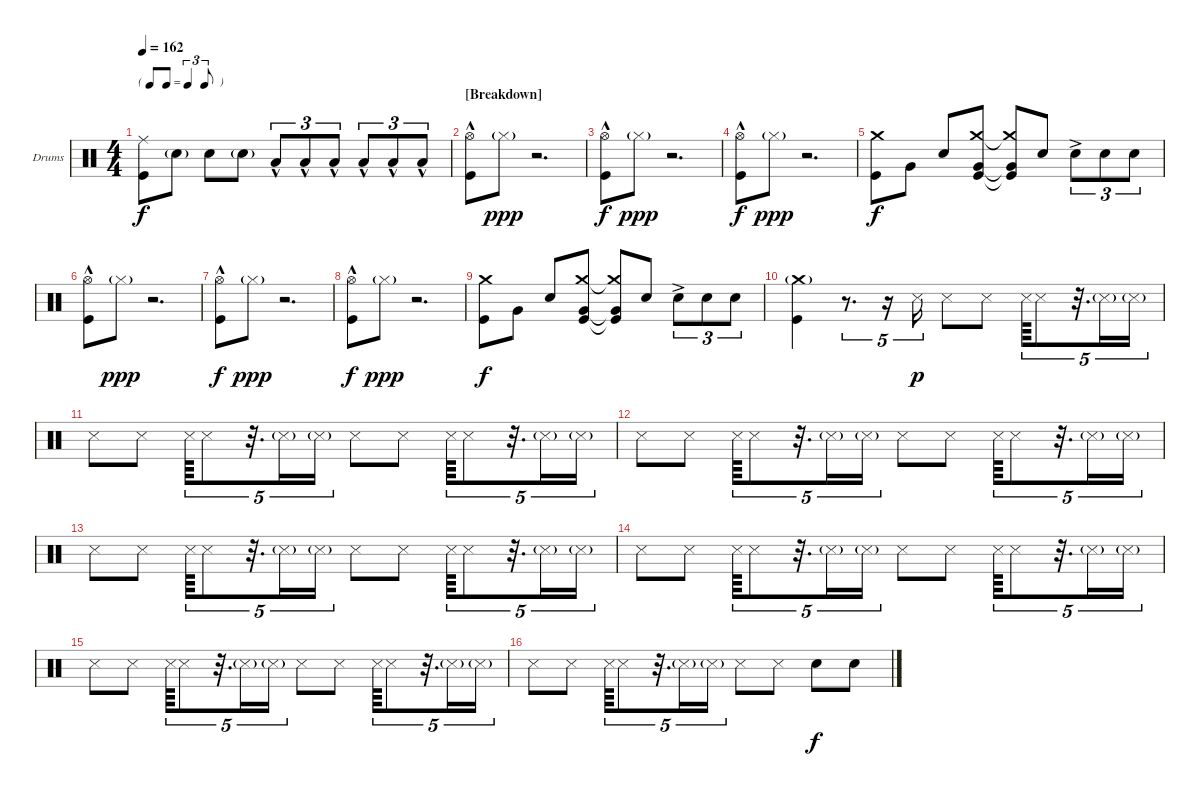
\bracketExtendMode groupsimilarinstruments
\firstSystemTrackNameOrientation horizontal
\otherSystemsTrackNameOrientation horizontal
\track ("Drumkit" "Drums") {instrument percussion}
\staff {score}
\articulation defaults
\ts (4 4)
\tf triplet8th
\tempo 162
\clef neutral
\ks c
("Kick (hit)" "Ride (middle)").8{dy f} "Snare (hit) 2"{g}.8 "Snare (hit) 2".8 "Snare (hit) 2"{g}.8 "Low Tom (hit)"{hac}.8{tu (3 2)} "Low Tom (hit)"{hac}.8{tu (3 2)} "Low Tom (hit)"{hac}.8{tu (3 2)} "Low Tom (hit)"{hac}.8{tu (3 2)} "Low Tom (hit)"{hac}.8{tu (3 2)} "Low Tom (hit)"{hac}.8{tu (3 2)} |
\section ("" "[Breakdown]")
("Hi-Hat (open)"{hac} "Kick (hit)").8 "Hi-Hat (closed)"{g}.8{dy ppp} r.2{d} |
("Hi-Hat (open)"{hac} "Kick (hit)").8{dy f} "Hi-Hat (closed)"{g}.8{dy ppp} r.2{d} |
("Hi-Hat (open)"{hac} "Kick (hit)").8{dy f} "Hi-Hat (closed)"{g}.8{dy ppp} r.2{d} |
("Crash medium (hit)" "Kick (hit)").8{dy f} "Very Low Tom (hit)".8 "Snare (hit) 2".8 ("Crash medium (hit)" "Kick (hit)" "Very Low Tom (hit)").8 ("Crash medium (hit)"{t} "Kick (hit)"{t} "Very Low Tom (hit)"{t}).8 "Snare (hit) 2".8 "Snare (hit) 2"{ac}.8{tu (3 2)} "Snare (hit) 2".8{tu (3 2)} "Snare (hit) 2".8{tu (3 2)} |
("Hi-Hat (open)"{hac} "Kick (hit)").8 "Hi-Hat (closed)"{g}.8{dy ppp} r.2{d} |
("Hi-Hat (open)"{hac} "Kick (hit)").8{dy f} "Hi-Hat (closed)"{g}.8{dy ppp} r.2{d} |
("Hi-Hat (open)"{hac} "Kick (hit)").8{dy f} "Hi-Hat (closed)"{g}.8{dy ppp} r.2{d} |
("Crash medium (hit)" "Kick (hit)").8{dy f} "Very Low Tom (hit)".8 "Snare (hit) 2".8 ("Crash medium (hit)" "Kick (hit)" "Very Low Tom (hit)").8 ("Crash medium (hit)"{t} "Kick (hit)"{t} "Very Low Tom (hit)"{t}).8 "Snare (hit) 2".8 "Snare (hit) 2"{ac}.8{tu (3 2)} "Snare (hit) 2".8{tu (3 2)} "Snare (hit) 2".8{tu (3 2)} |
("Kick (hit)" "Crash medium (hit)"{g}).4 r.8{d tu (5 4)} r.16{tu (5 4)} "Snare (side stick) 3".16{tu (5 4) dy p} "Snare (side stick) 3".8 "Snare (side stick) 3".8 "Snare (side stick) 3".64{tu (5 4)} "Snare (side stick) 3".8{tu (5 4)} r.32{d tu (5 4)} "Snare (side stick) 3"{g}.16{tu (5 4)} "Snare (side stick) 3"{g}.16{tu (5 4)} |
"Snare (side stick) 3".8 "Snare (side stick) 3".8 "Snare (side stick) 3".64{tu (5 4)} "Snare (side stick) 3".8{tu (5 4)} r.32{d tu (5 4)} "Snare (side stick) 3"{g}.16{tu (5 4)} "Snare (side stick) 3"{g}.16{tu (5 4)} "Snare (side stick) 3".8 "Snare (side stick) 3".8 "Snare (side stick) 3".64{tu (5 4)} "Snare (side stick) 3".8{tu (5 4)} r.32{d tu (5 4)} "Snare (side stick) 3"{g}.16{tu (5 4)} "Snare (side stick) 3"{g}.16{tu (5 4)} |
"Snare (side stick) 3".8 "Snare (side stick) 3".8 "Snare (side stick) 3".64{tu (5 4)} "Snare (side stick) 3".8{tu (5 4)} r.32{d tu (5 4)} "Snare (side stick) 3"{g}.16{tu (5 4)} "Snare (side stick) 3"{g}.16{tu (5 4)} "Snare (side stick) 3".8 "Snare (side stick) 3".8 "Snare (side stick) 3".64{tu (5 4)} "Snare (side stick) 3".8{tu (5 4)} r.32{d tu (5 4)} "Snare (side stick) 3"{g}.16{tu (5 4)} "Snare (side stick) 3"{g}.16{tu (5 4)} |
"Snare (side stick) 3".8 "Snare (side stick) 3".8 "Snare (side stick) 3".64{tu (5 4)} "Snare (side stick) 3".8{tu (5 4)} r.32{d tu (5 4)} "Snare (side stick) 3"{g}.16{tu (5 4)} "Snare (side stick) 3"{g}.16{tu (5 4)} "Snare (side stick) 3".8 "Snare (side stick) 3".8 "Snare (side stick) 3".64{tu (5 4)} "Snare (side stick) 3".8{tu (5 4)} r.32{d tu (5 4)} "Snare (side stick) 3"{g}.16{tu (5 4)} "Snare (side stick) 3"{g}.16{tu (5 4)} |
"Snare (side stick) 3".8 "Snare (side stick) 3".8 "Snare (side stick) 3".64{tu (5 4)} "Snare (side stick) 3".8{tu (5 4)} r.32{d tu (5 4)} "Snare (side stick) 3"{g}.16{tu (5 4)} "Snare (side stick) 3"{g}.16{tu (5 4)} "Snare (side stick) 3".8 "Snare (side stick) 3".8 "Snare (side stick) 3".64{tu (5 4)} "Snare (side stick) 3".8{tu (5 4)} r.32{d tu (5 4)} "Snare (side stick) 3"{g}.16{tu (5 4)} "Snare (side stick) 3"{g}.16{tu (5 4)} |
"Snare (side stick) 3".8 "Snare (side stick) 3".8 "Snare (side stick) 3".64{tu (5 4)} "Snare (side stick) 3".8{tu (5 4)} r.32{d tu (5 4)} "Snare (side stick) 3"{g}.16{tu (5 4)} "Snare (side stick) 3"{g}.16{tu (5 4)} "Snare (side stick) 3".8 "Snare (side stick) 3".8 "Snare (side stick) 3".64{tu (5 4)} "Snare (side stick) 3".8{tu (5 4)} r.32{d tu (5 4)} "Snare (side stick) 3"{g}.16{tu (5 4)} "Snare (side stick) 3"{g}.16{tu (5 4)} |
"Snare (side stick) 3".8 "Snare (side stick) 3".8 "Snare (side stick) 3".64{tu (5 4)} "Snare (side stick) 3".8{tu (5 4)} r.32{d tu (5 4)} "Snare (side stick) 3"{g}.16{tu (5 4)} "Snare (side stick) 3"{g}.16{tu (5 4)} "Snare (side stick) 3".8 "Snare (side stick) 3".8 "Snare (hit) 2".8{dy f} "Snare (hit) 2".8
